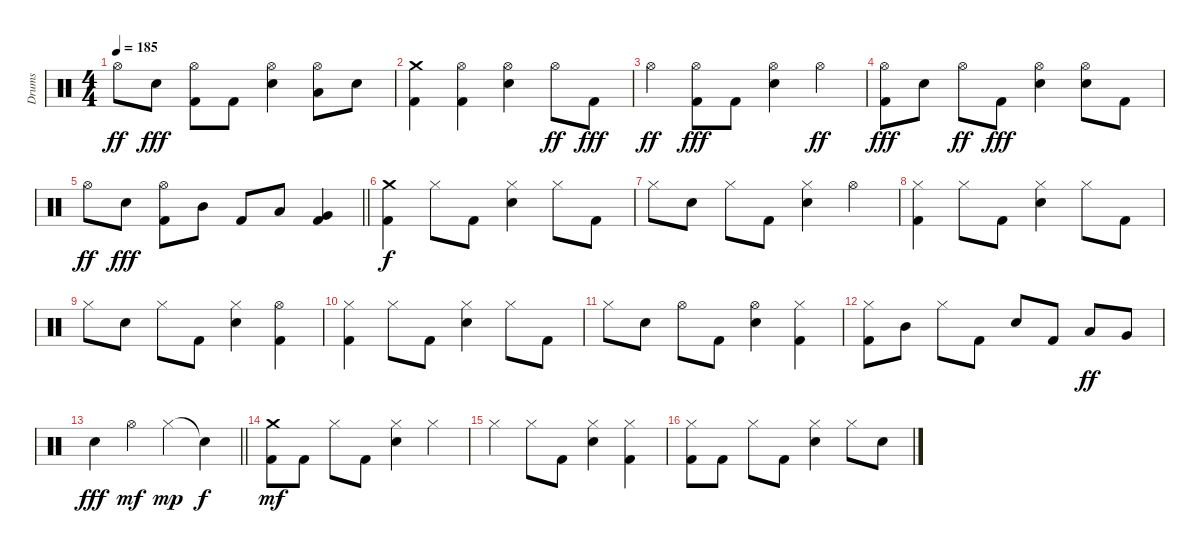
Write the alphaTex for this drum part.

\track ("Drums" "Drums") {instrument percussion}
\staff {score}
\articulation defaults
\ts (4 4)
\tempo 185
\clef neutral
\ks c "Hi-Hat (open)".8{dy ff} "Snare (hit) 2".8{dy fff}
("Hi-Hat (open)" "Kick (hit) 2").8 "Kick (hit) 2".8 ("Hi-Hat (open)" "Snare (hit) 2").4 ("Hi-Hat (open)" "Low Tom (hit)").8 "Snare (hit) 2".8 |
("Crash medium (hit)" "Kick (hit) 2").4 ("Hi-Hat (open)" "Kick (hit) 2").4 ("Hi-Hat (open)" "Snare (hit) 2").4 "Hi-Hat (open)".8{dy ff} "Kick (hit) 2".8{dy fff} |
"Hi-Hat (open)".4{dy ff} ("Hi-Hat (open)" "Kick (hit) 2").8{dy fff} "Kick (hit) 2".8 ("Hi-Hat (open)" "Snare (hit) 2").4 "Hi-Hat (open)".4{dy ff} |
("Hi-Hat (open)" "Kick (hit) 2").8{dy fff} "Snare (hit) 2".8 "Hi-Hat (open)".8{dy ff} "Kick (hit) 2".8{dy fff} ("Hi-Hat (open)" "Snare (hit) 2").4 ("Hi-Hat (open)" "Snare (hit) 2").8 "Kick (hit) 2".8 |
\barLineRight lightlight "Hi-Hat (open)".8{dy ff} "Snare (hit) 2".8{dy fff}
("Hi-Hat (open)" "Kick (hit) 2").8 "Mid Tom (hit)".8 "Kick (hit) 2".8 "Low Tom (hit)".8 ("Very Low Tom (hit)" "Kick (hit) 2").4 |
\section ("" "")
("Crash medium (hit)" "Kick (hit) 2").4{dy f} "Hi-Hat (closed)".8 "Kick (hit) 2".8 ("Hi-Hat (closed)" "Snare (hit) 2").4 "Hi-Hat (closed)".8 "Kick (hit) 2".8 |
"Hi-Hat (closed)".8 "Snare (hit) 2".8 "Hi-Hat (closed)".8 "Kick (hit) 2".8 ("Hi-Hat (closed)" "Snare (hit) 2").4 "Hi-Hat (open)".4 |
("Hi-Hat (closed)" "Kick (hit) 2").4 "Hi-Hat (closed)".8 "Kick (hit) 2".8 ("Hi-Hat (closed)" "Snare (hit) 2").4 "Hi-Hat (closed)".8 "Kick (hit) 2".8 |
"Hi-Hat (closed)".8 "Snare (hit) 2".8 "Hi-Hat (closed)".8 "Kick (hit) 2".8 ("Hi-Hat (closed)" "Snare (hit) 2").4 ("Hi-Hat (open)" "Kick (hit) 2").4 |
("Hi-Hat (closed)" "Kick (hit) 2").4 "Hi-Hat (closed)".8 "Kick (hit) 2".8 ("Hi-Hat (closed)" "Snare (hit) 2").4 "Hi-Hat (closed)".8 "Kick (hit) 2".8 |
"Hi-Hat (closed)".8 "Snare (hit) 2".8 "Hi-Hat (open)".8 "Kick (hit) 2".8 ("Hi-Hat (open)" "Snare (hit) 2").4 ("Hi-Hat (closed)" "Kick (hit) 2").4 |
("Hi-Hat (closed)" "Kick (hit) 2").8 "Mid Tom (hit)".8 "Hi-Hat (closed)".8 "Kick (hit) 2".8 "Snare (hit) 2".8 "Kick (hit) 2".8 "Low Tom (hit)".8{dy ff} "Very Low Tom (hit)".8 |
\barLineRight lightlight "Snare (hit) 2".4{dy fff} "Hi-Hat (open)".4{dy mf} "Hi-Hat (closed)".4{dy mp} "Snare (hit)"{t}.4{dy f}
|
\section ("" "")
("Crash medium (hit)" "Kick (hit) 2").8{dy mf} "Kick (hit) 2".8 "Hi-Hat (closed)".8 "Kick (hit) 2".8 ("Hi-Hat (closed)" "Snare (hit) 2").4 "Hi-Hat (closed)".4 |
"Hi-Hat (closed)".4 "Hi-Hat (closed)".8 "Kick (hit) 2".8 ("Hi-Hat (closed)" "Snare (hit) 2").4 ("Hi-Hat (closed)" "Kick (hit) 2").4 |
("Hi-Hat (closed)" "Kick (hit) 2").8 "Kick (hit) 2".8 "Hi-Hat (closed)".8 "Kick (hit) 2".8 ("Hi-Hat (closed)" "Snare (hit) 2").4 "Hi-Hat (closed)".8 "Snare (hit) 2".8
